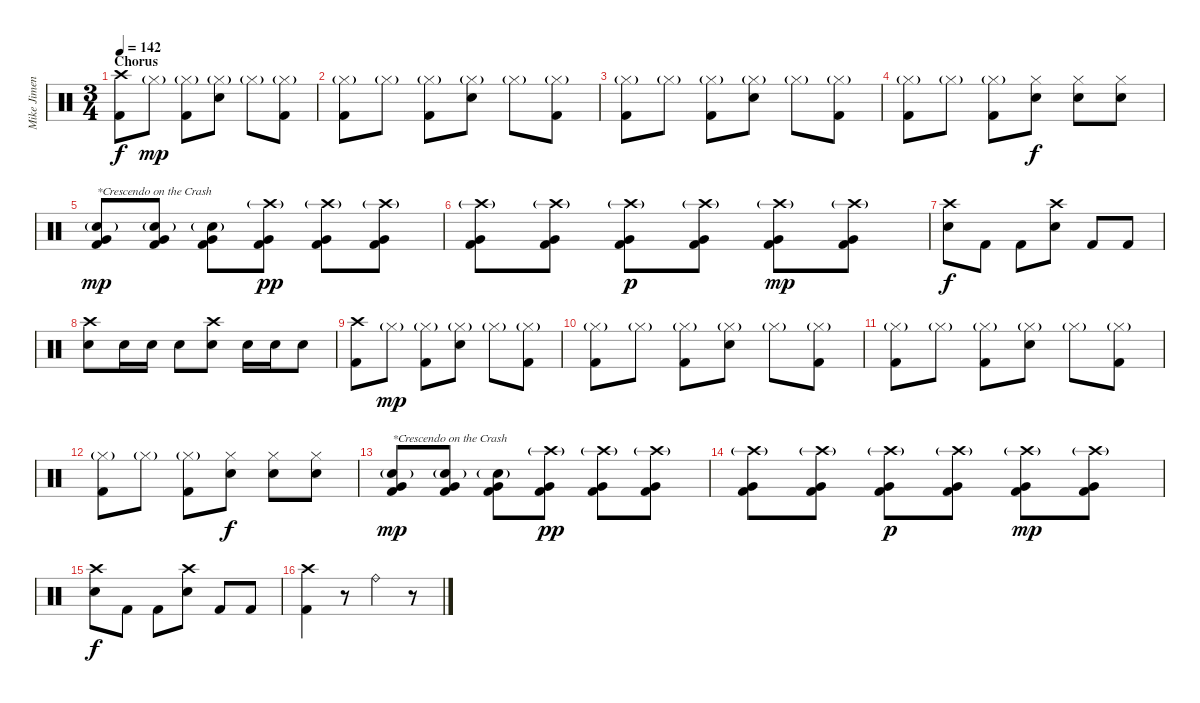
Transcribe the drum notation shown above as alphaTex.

\track ("Mike Jimenez" "Mike Jimen") {instrument percussion}
\staff {score}
\articulation defaults
\ts (3 4)
\section ("" "Chorus")
\tempo 142
\clef neutral
\ks c
("Crash high (hit)" "Kick (hit) 2").8{dy f} "Hi-Hat (closed)"{g}.8{dy mp} ("Hi-Hat (closed)"{g} "Kick (hit) 2").8 ("Hi-Hat (closed)"{g} "Electric Snare (hit)").8 "Hi-Hat (closed)"{g}.8 ("Hi-Hat (closed)"{g} "Kick (hit) 2").8 |
("Hi-Hat (closed)"{g} "Kick (hit) 2").8 "Hi-Hat (closed)"{g}.8 ("Hi-Hat (closed)"{g} "Kick (hit) 2").8 ("Hi-Hat (closed)"{g} "Electric Snare (hit)").8 "Hi-Hat (closed)"{g}.8 ("Hi-Hat (closed)"{g} "Kick (hit) 2").8 |
("Hi-Hat (closed)"{g} "Kick (hit) 2").8 "Hi-Hat (closed)"{g}.8 ("Hi-Hat (closed)"{g} "Kick (hit) 2").8 ("Hi-Hat (closed)"{g} "Electric Snare (hit)").8 "Hi-Hat (closed)"{g}.8 ("Hi-Hat (closed)"{g} "Kick (hit) 2").8 |
("Hi-Hat (closed)"{g} "Kick (hit) 2").8 "Hi-Hat (closed)"{g}.8 ("Hi-Hat (closed)"{g} "Kick (hit) 2").8 ("Hi-Hat (closed)" "Electric Snare (hit)").8{dy f} ("Hi-Hat (closed)" "Electric Snare (hit)").8 ("Hi-Hat (closed)" "Electric Snare (hit)").8 |
("Electric Snare (hit)"{g} "Very Low Tom (hit)" "Kick (hit) 2").8{txt "*Crescendo on the Crash" dy mp} ("Electric Snare (hit)"{g} "Very Low Tom (hit)" "Kick (hit) 2").8 ("Electric Snare (hit)"{g} "Very Low Tom (hit)" "Kick (hit) 2").8 ("Crash high (hit)"{g} "Very Low Tom (hit)" "Kick (hit) 2").8{dy pp} ("Crash high (hit)"{g} "Very Low Tom (hit)" "Kick (hit) 2").8 ("Crash high (hit)"{g} "Very Low Tom (hit)" "Kick (hit) 2").8 |
("Crash high (hit)"{g} "Very Low Tom (hit)" "Kick (hit) 2").8 ("Crash high (hit)"{g} "Very Low Tom (hit)" "Kick (hit) 2").8 ("Crash high (hit)"{g} "Very Low Tom (hit)" "Kick (hit) 2").8{dy p} ("Crash high (hit)"{g} "Very Low Tom (hit)" "Kick (hit) 2").8 ("Crash high (hit)"{g} "Very Low Tom (hit)" "Kick (hit) 2").8{dy mp} ("Crash high (hit)"{g} "Very Low Tom (hit)" "Kick (hit) 2").8 |
("Crash high (hit)" "Electric Snare (hit)").8{dy f} "Kick (hit) 2".8 "Kick (hit) 2".8 ("Crash high (hit)" "Electric Snare (hit)").8 "Kick (hit) 2".8 "Kick (hit) 2".8 |
("Crash high (hit)" "Electric Snare (hit)").8 "Electric Snare (hit)".16 "Electric Snare (hit)".16 "Electric Snare (hit)".8 ("Crash high (hit)" "Electric Snare (hit)").8 "Electric Snare (hit)".16 "Electric Snare (hit)".16 "Electric Snare (hit)".8 |
("Crash high (hit)" "Kick (hit) 2").8 "Hi-Hat (closed)"{g}.8{dy mp} ("Hi-Hat (closed)"{g} "Kick (hit) 2").8 ("Hi-Hat (closed)"{g} "Electric Snare (hit)").8 "Hi-Hat (closed)"{g}.8 ("Hi-Hat (closed)"{g} "Kick (hit) 2").8 |
("Hi-Hat (closed)"{g} "Kick (hit) 2").8 "Hi-Hat (closed)"{g}.8 ("Hi-Hat (closed)"{g} "Kick (hit) 2").8 ("Hi-Hat (closed)"{g} "Electric Snare (hit)").8 "Hi-Hat (closed)"{g}.8 ("Hi-Hat (closed)"{g} "Kick (hit) 2").8 |
("Hi-Hat (closed)"{g} "Kick (hit) 2").8 "Hi-Hat (closed)"{g}.8 ("Hi-Hat (closed)"{g} "Kick (hit) 2").8 ("Hi-Hat (closed)"{g} "Electric Snare (hit)").8 "Hi-Hat (closed)"{g}.8 ("Hi-Hat (closed)"{g} "Kick (hit) 2").8 |
("Hi-Hat (closed)"{g} "Kick (hit) 2").8 "Hi-Hat (closed)"{g}.8 ("Hi-Hat (closed)"{g} "Kick (hit) 2").8 ("Hi-Hat (closed)" "Electric Snare (hit)").8{dy f} ("Hi-Hat (closed)" "Electric Snare (hit)").8 ("Hi-Hat (closed)" "Electric Snare (hit)").8 |
("Electric Snare (hit)"{g} "Very Low Tom (hit)" "Kick (hit) 2").8{txt "*Crescendo on the Crash" dy mp} ("Electric Snare (hit)"{g} "Very Low Tom (hit)" "Kick (hit) 2").8 ("Electric Snare (hit)"{g} "Very Low Tom (hit)" "Kick (hit) 2").8 ("Crash high (hit)"{g} "Very Low Tom (hit)" "Kick (hit) 2").8{dy pp} ("Crash high (hit)"{g} "Very Low Tom (hit)" "Kick (hit) 2").8 ("Crash high (hit)"{g} "Very Low Tom (hit)" "Kick (hit) 2").8 |
("Crash high (hit)"{g} "Very Low Tom (hit)" "Kick (hit) 2").8 ("Crash high (hit)"{g} "Very Low Tom (hit)" "Kick (hit) 2").8 ("Crash high (hit)"{g} "Very Low Tom (hit)" "Kick (hit) 2").8{dy p} ("Crash high (hit)"{g} "Very Low Tom (hit)" "Kick (hit) 2").8 ("Crash high (hit)"{g} "Very Low Tom (hit)" "Kick (hit) 2").8{dy mp} ("Crash high (hit)"{g} "Very Low Tom (hit)" "Kick (hit) 2").8 |
("Crash high (hit)" "Electric Snare (hit)").8{dy f} "Kick (hit) 2".8 "Kick (hit) 2".8 ("Crash high (hit)" "Electric Snare (hit)").8 "Kick (hit) 2".8 "Kick (hit) 2".8 |
("Crash high (hit)" "Kick (hit) 2").4 r.8 "Ride (bell)".4 r.8
